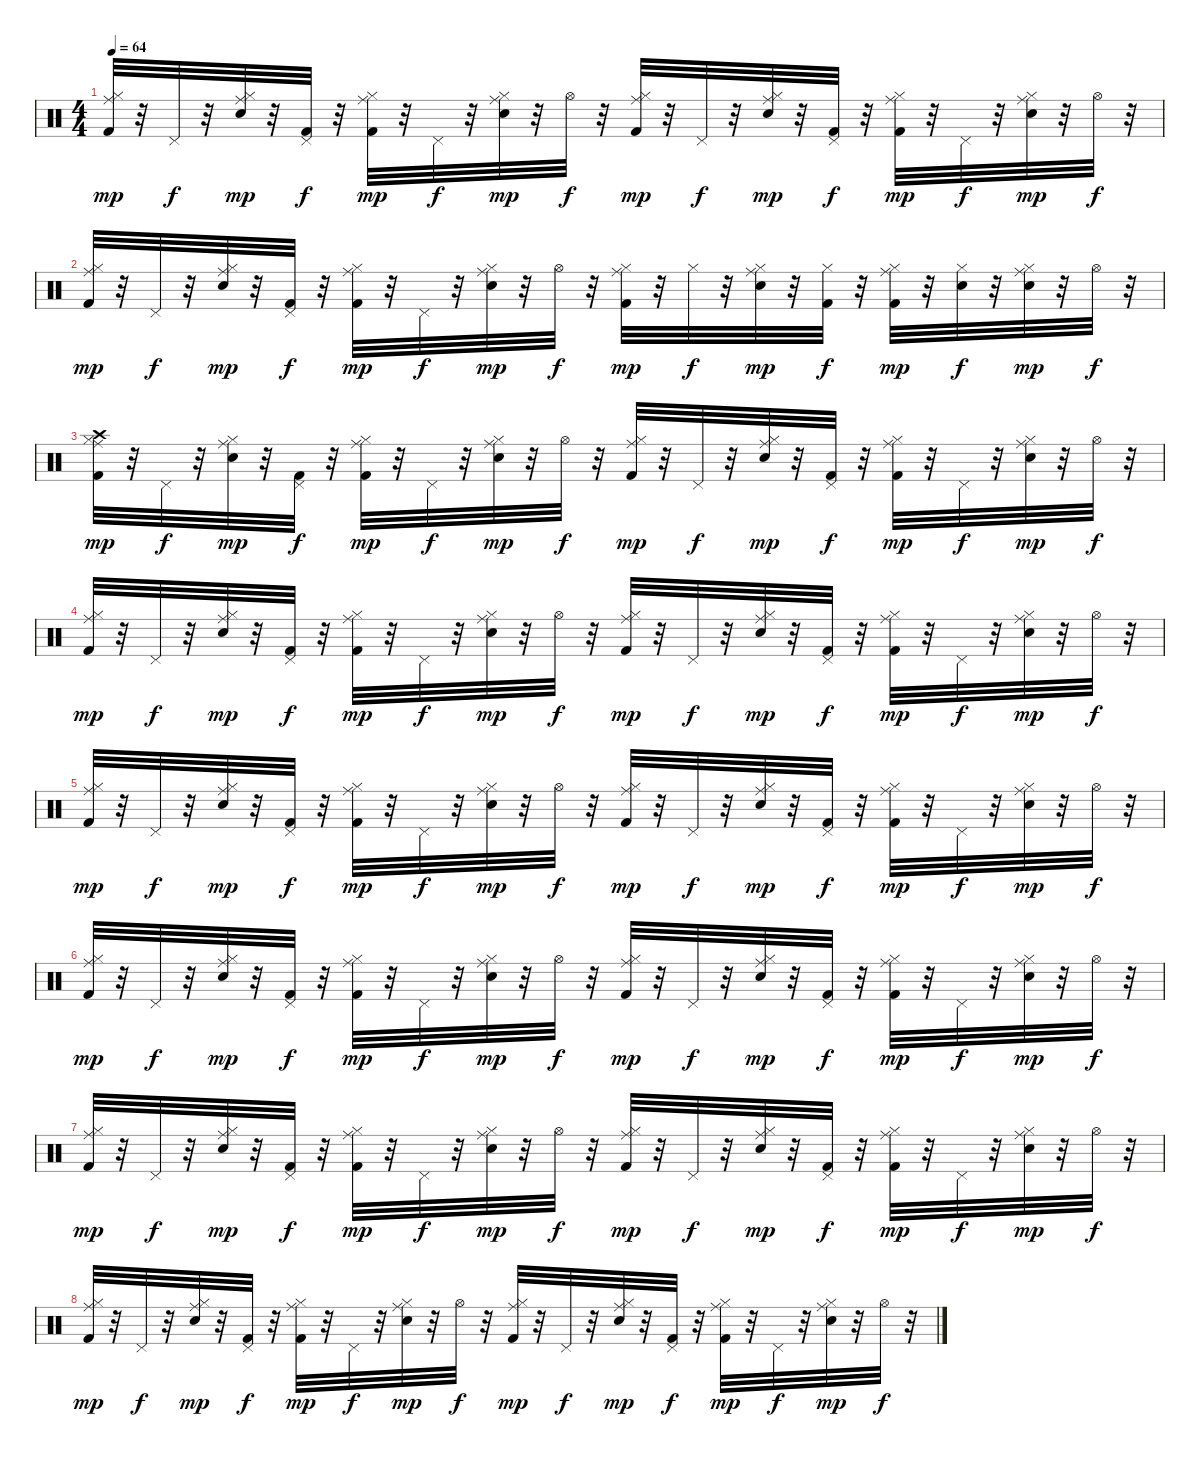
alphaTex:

\track "" {instrument percussion}
\staff {score}
\articulation defaults
\ts (4 4)
\tempo 64
\clef neutral
\ks c
("Ride (middle)" "Hi-Hat (closed)" "Kick (hit) 2").32{dy mp} r.32 "Pedal Hi-Hat (hit)".32{dy f} r.32 ("Ride (middle)" "Hi-Hat (closed)" "Snare (hit) 2").32{dy mp} r.32 ("Pedal Hi-Hat (hit)" "Kick (hit) 2").32{dy f} r.32 ("Ride (middle)" "Hi-Hat (closed)" "Kick (hit) 2").32{dy mp} r.32 "Pedal Hi-Hat (hit)".32{dy f} r.32 ("Snare (hit) 2" "Ride (middle)" "Hi-Hat (closed)").32{dy mp} r.32 "Hi-Hat (open)".32{dy f} r.32 ("Kick (hit) 2" "Hi-Hat (closed)" "Ride (middle)").32{dy mp} r.32 "Pedal Hi-Hat (hit)".32{dy f} r.32 ("Snare (hit) 2" "Hi-Hat (closed)" "Ride (middle)").32{dy mp} r.32 ("Kick (hit) 2" "Pedal Hi-Hat (hit)").32{dy f} r.32 ("Kick (hit) 2" "Hi-Hat (closed)" "Ride (middle)").32{dy mp} r.32 "Pedal Hi-Hat (hit)".32{dy f} r.32 ("Snare (hit) 2" "Hi-Hat (closed)" "Ride (middle)").32{dy mp} r.32 "Hi-Hat (open)".32{dy f} r.32 |
("Ride (middle)" "Hi-Hat (closed)" "Kick (hit) 2").32{dy mp} r.32 "Pedal Hi-Hat (hit)".32{dy f} r.32 ("Ride (middle)" "Hi-Hat (closed)" "Snare (hit) 2").32{dy mp} r.32 ("Pedal Hi-Hat (hit)" "Kick (hit) 2").32{dy f} r.32 ("Ride (middle)" "Hi-Hat (closed)" "Kick (hit) 2").32{dy mp} r.32 "Pedal Hi-Hat (hit)".32{dy f} r.32 ("Snare (hit) 2" "Ride (middle)" "Hi-Hat (closed)").32{dy mp} r.32 "Hi-Hat (open)".32{dy f} r.32 ("Kick (hit) 2" "Hi-Hat (closed)" "Ride (middle)").32{dy mp} r.32 "Hi-Hat (closed)".32{dy f} r.32 ("Snare (hit) 2" "Hi-Hat (closed)" "Ride (middle)").32{dy mp} r.32 ("Kick (hit) 2" "Hi-Hat (closed)").32{dy f} r.32 ("Kick (hit) 2" "Hi-Hat (closed)" "Ride (middle)").32{dy mp} r.32 ("Hi-Hat (closed)" "Snare (hit) 2").32{dy f} r.32 ("Snare (hit) 2" "Hi-Hat (closed)" "Ride (middle)").32{dy mp} r.32 "Hi-Hat (open)".32{dy f} r.32 |
("Crash high (hit)" "Ride (middle)" "Hi-Hat (closed)" "Kick (hit) 2").32{dy mp} r.32 "Pedal Hi-Hat (hit)".32{dy f} r.32 ("Ride (middle)" "Hi-Hat (closed)" "Snare (hit) 2").32{dy mp} r.32 ("Pedal Hi-Hat (hit)" "Kick (hit) 2").32{dy f} r.32 ("Ride (middle)" "Hi-Hat (closed)" "Kick (hit) 2").32{dy mp} r.32 "Pedal Hi-Hat (hit)".32{dy f} r.32 ("Snare (hit) 2" "Ride (middle)" "Hi-Hat (closed)").32{dy mp} r.32 "Hi-Hat (open)".32{dy f} r.32 ("Kick (hit) 2" "Hi-Hat (closed)" "Ride (middle)").32{dy mp} r.32 "Pedal Hi-Hat (hit)".32{dy f} r.32 ("Snare (hit) 2" "Hi-Hat (closed)" "Ride (middle)").32{dy mp} r.32 ("Kick (hit) 2" "Pedal Hi-Hat (hit)").32{dy f} r.32 ("Kick (hit) 2" "Hi-Hat (closed)" "Ride (middle)").32{dy mp} r.32 "Pedal Hi-Hat (hit)".32{dy f} r.32 ("Snare (hit) 2" "Hi-Hat (closed)" "Ride (middle)").32{dy mp} r.32 "Hi-Hat (open)".32{dy f} r.32 |
("Ride (middle)" "Hi-Hat (closed)" "Kick (hit) 2").32{dy mp} r.32 "Pedal Hi-Hat (hit)".32{dy f} r.32 ("Ride (middle)" "Hi-Hat (closed)" "Snare (hit) 2").32{dy mp} r.32 ("Pedal Hi-Hat (hit)" "Kick (hit) 2").32{dy f} r.32 ("Ride (middle)" "Hi-Hat (closed)" "Kick (hit) 2").32{dy mp} r.32 "Pedal Hi-Hat (hit)".32{dy f} r.32 ("Snare (hit) 2" "Ride (middle)" "Hi-Hat (closed)").32{dy mp} r.32 "Hi-Hat (open)".32{dy f} r.32 ("Kick (hit) 2" "Hi-Hat (closed)" "Ride (middle)").32{dy mp} r.32 "Pedal Hi-Hat (hit)".32{dy f} r.32 ("Snare (hit) 2" "Hi-Hat (closed)" "Ride (middle)").32{dy mp} r.32 ("Kick (hit) 2" "Pedal Hi-Hat (hit)").32{dy f} r.32 ("Kick (hit) 2" "Hi-Hat (closed)" "Ride (middle)").32{dy mp} r.32 "Pedal Hi-Hat (hit)".32{dy f} r.32 ("Snare (hit) 2" "Hi-Hat (closed)" "Ride (middle)").32{dy mp} r.32 "Hi-Hat (open)".32{dy f} r.32 |
("Ride (middle)" "Hi-Hat (closed)" "Kick (hit) 2").32{dy mp} r.32 "Pedal Hi-Hat (hit)".32{dy f} r.32 ("Ride (middle)" "Hi-Hat (closed)" "Snare (hit) 2").32{dy mp} r.32 ("Pedal Hi-Hat (hit)" "Kick (hit) 2").32{dy f} r.32 ("Ride (middle)" "Hi-Hat (closed)" "Kick (hit) 2").32{dy mp} r.32 "Pedal Hi-Hat (hit)".32{dy f} r.32 ("Snare (hit) 2" "Ride (middle)" "Hi-Hat (closed)").32{dy mp} r.32 "Hi-Hat (open)".32{dy f} r.32 ("Kick (hit) 2" "Hi-Hat (closed)" "Ride (middle)").32{dy mp} r.32 "Pedal Hi-Hat (hit)".32{dy f} r.32 ("Snare (hit) 2" "Hi-Hat (closed)" "Ride (middle)").32{dy mp} r.32 ("Kick (hit) 2" "Pedal Hi-Hat (hit)").32{dy f} r.32 ("Kick (hit) 2" "Hi-Hat (closed)" "Ride (middle)").32{dy mp} r.32 "Pedal Hi-Hat (hit)".32{dy f} r.32 ("Snare (hit) 2" "Hi-Hat (closed)" "Ride (middle)").32{dy mp} r.32 "Hi-Hat (open)".32{dy f} r.32 |
("Ride (middle)" "Hi-Hat (closed)" "Kick (hit) 2").32{dy mp} r.32 "Pedal Hi-Hat (hit)".32{dy f} r.32 ("Ride (middle)" "Hi-Hat (closed)" "Snare (hit) 2").32{dy mp} r.32 ("Pedal Hi-Hat (hit)" "Kick (hit) 2").32{dy f} r.32 ("Ride (middle)" "Hi-Hat (closed)" "Kick (hit) 2").32{dy mp} r.32 "Pedal Hi-Hat (hit)".32{dy f} r.32 ("Snare (hit) 2" "Ride (middle)" "Hi-Hat (closed)").32{dy mp} r.32 "Hi-Hat (open)".32{dy f} r.32 ("Kick (hit) 2" "Hi-Hat (closed)" "Ride (middle)").32{dy mp} r.32 "Pedal Hi-Hat (hit)".32{dy f} r.32 ("Snare (hit) 2" "Hi-Hat (closed)" "Ride (middle)").32{dy mp} r.32 ("Kick (hit) 2" "Pedal Hi-Hat (hit)").32{dy f} r.32 ("Kick (hit) 2" "Hi-Hat (closed)" "Ride (middle)").32{dy mp} r.32 "Pedal Hi-Hat (hit)".32{dy f} r.32 ("Snare (hit) 2" "Hi-Hat (closed)" "Ride (middle)").32{dy mp} r.32 "Hi-Hat (open)".32{dy f} r.32 |
("Ride (middle)" "Hi-Hat (closed)" "Kick (hit) 2").32{dy mp} r.32 "Pedal Hi-Hat (hit)".32{dy f} r.32 ("Ride (middle)" "Hi-Hat (closed)" "Snare (hit) 2").32{dy mp} r.32 ("Pedal Hi-Hat (hit)" "Kick (hit) 2").32{dy f} r.32 ("Ride (middle)" "Hi-Hat (closed)" "Kick (hit) 2").32{dy mp} r.32 "Pedal Hi-Hat (hit)".32{dy f} r.32 ("Snare (hit) 2" "Ride (middle)" "Hi-Hat (closed)").32{dy mp} r.32 "Hi-Hat (open)".32{dy f} r.32 ("Kick (hit) 2" "Hi-Hat (closed)" "Ride (middle)").32{dy mp} r.32 "Pedal Hi-Hat (hit)".32{dy f} r.32 ("Snare (hit) 2" "Hi-Hat (closed)" "Ride (middle)").32{dy mp} r.32 ("Kick (hit) 2" "Pedal Hi-Hat (hit)").32{dy f} r.32 ("Kick (hit) 2" "Hi-Hat (closed)" "Ride (middle)").32{dy mp} r.32 "Pedal Hi-Hat (hit)".32{dy f} r.32 ("Snare (hit) 2" "Hi-Hat (closed)" "Ride (middle)").32{dy mp} r.32 "Hi-Hat (open)".32{dy f} r.32 |
("Ride (middle)" "Hi-Hat (closed)" "Kick (hit) 2").32{dy mp} r.32 "Pedal Hi-Hat (hit)".32{dy f} r.32 ("Ride (middle)" "Hi-Hat (closed)" "Snare (hit) 2").32{dy mp} r.32 ("Pedal Hi-Hat (hit)" "Kick (hit) 2").32{dy f} r.32 ("Ride (middle)" "Hi-Hat (closed)" "Kick (hit) 2").32{dy mp} r.32 "Pedal Hi-Hat (hit)".32{dy f} r.32 ("Snare (hit) 2" "Ride (middle)" "Hi-Hat (closed)").32{dy mp} r.32 "Hi-Hat (open)".32{dy f} r.32 ("Kick (hit) 2" "Hi-Hat (closed)" "Ride (middle)").32{dy mp} r.32 "Pedal Hi-Hat (hit)".32{dy f} r.32 ("Snare (hit) 2" "Hi-Hat (closed)" "Ride (middle)").32{dy mp} r.32 ("Kick (hit) 2" "Pedal Hi-Hat (hit)").32{dy f} r.32 ("Kick (hit) 2" "Hi-Hat (closed)" "Ride (middle)").32{dy mp} r.32 "Pedal Hi-Hat (hit)".32{dy f} r.32 ("Snare (hit) 2" "Hi-Hat (closed)" "Ride (middle)").32{dy mp} r.32 "Hi-Hat (open)".32{dy f} r.32
